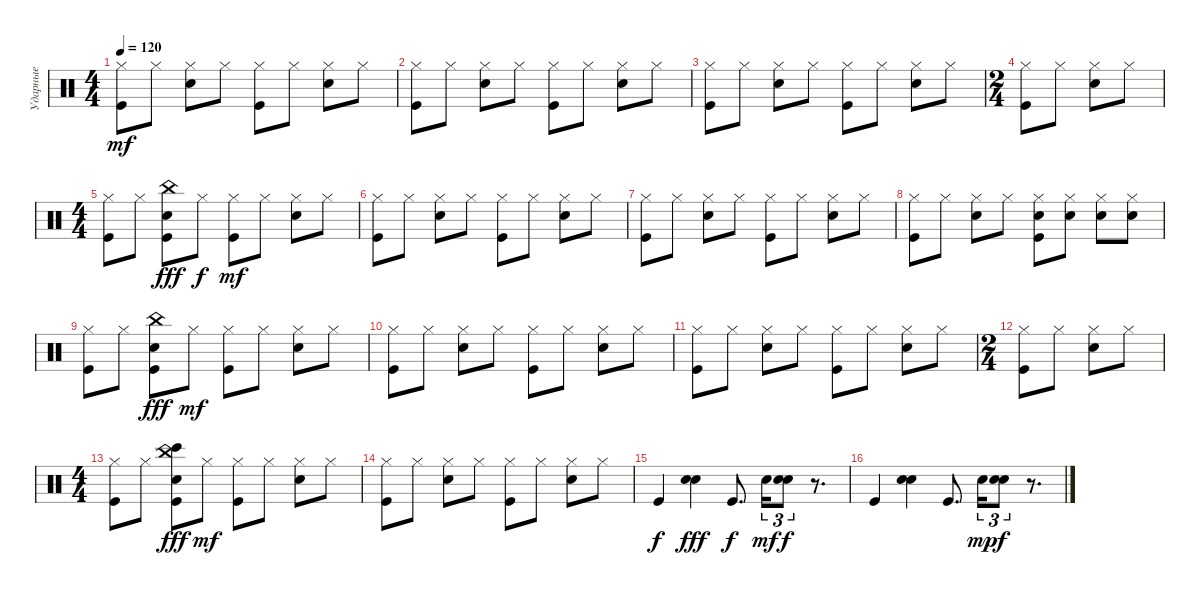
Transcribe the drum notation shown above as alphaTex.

\track ("Ударные" "Ударные") {instrument percussion}
\staff {score}
\articulation defaults
\ts (4 4)
\tempo 120
\clef neutral
\ks c
("Kick (hit)" "Hi-Hat (closed)").8{dy mf} "Hi-Hat (closed)".8 ("Snare (hit) 2" "Hi-Hat (closed)").8 "Hi-Hat (closed)".8 ("Kick (hit)" "Hi-Hat (closed)").8 "Hi-Hat (closed)".8 ("Snare (hit) 2" "Hi-Hat (closed)").8 "Hi-Hat (closed)".8 |
("Kick (hit)" "Hi-Hat (closed)").8 "Hi-Hat (closed)".8 ("Snare (hit) 2" "Hi-Hat (closed)").8 "Hi-Hat (closed)".8 ("Kick (hit)" "Hi-Hat (closed)").8 "Hi-Hat (closed)".8 ("Snare (hit) 2" "Hi-Hat (closed)").8 "Hi-Hat (closed)".8 |
("Kick (hit)" "Hi-Hat (closed)").8 "Hi-Hat (closed)".8 ("Snare (hit) 2" "Hi-Hat (closed)").8 "Hi-Hat (closed)".8 ("Kick (hit)" "Hi-Hat (closed)").8 "Hi-Hat (closed)".8 ("Snare (hit) 2" "Hi-Hat (closed)").8 "Hi-Hat (closed)".8 |
\ts (2 4)
("Kick (hit)" "Hi-Hat (closed)").8 "Hi-Hat (closed)".8 ("Snare (hit) 2" "Hi-Hat (closed)").8 "Hi-Hat (closed)".8 |
\ts (4 4)
("Kick (hit)" "Hi-Hat (closed)").8 "Hi-Hat (closed)".8 ("Kick (hit)" "Hand Clap (hit)" "China (hit)").8{dy fff} "Hi-Hat (closed)".8{dy f} ("Kick (hit)" "Hi-Hat (closed)").8{dy mf} "Hi-Hat (closed)".8 ("Snare (hit) 2" "Hi-Hat (closed)").8 "Hi-Hat (closed)".8 |
("Kick (hit)" "Hi-Hat (closed)").8 "Hi-Hat (closed)".8 ("Snare (hit) 2" "Hi-Hat (closed)").8 "Hi-Hat (closed)".8 ("Kick (hit)" "Hi-Hat (closed)").8 "Hi-Hat (closed)".8 ("Snare (hit) 2" "Hi-Hat (closed)").8 "Hi-Hat (closed)".8 |
("Kick (hit)" "Hi-Hat (closed)").8 "Hi-Hat (closed)".8 ("Snare (hit) 2" "Hi-Hat (closed)").8 "Hi-Hat (closed)".8 ("Kick (hit)" "Hi-Hat (closed)").8 "Hi-Hat (closed)".8 ("Snare (hit) 2" "Hi-Hat (closed)").8 "Hi-Hat (closed)".8 |
("Kick (hit)" "Hi-Hat (closed)").8 "Hi-Hat (closed)".8 ("Snare (hit) 2" "Hi-Hat (closed)").8 "Hi-Hat (closed)".8 ("Kick (hit)" "Hi-Hat (closed)" "Snare (hit) 2").8 ("Hi-Hat (closed)" "Snare (hit) 2").8 ("Hi-Hat (closed)" "Snare (hit) 2").8 ("Hi-Hat (closed)" "Snare (hit) 2").8 |
("Kick (hit)" "Hi-Hat (closed)").8 "Hi-Hat (closed)".8 ("Hand Clap (hit)" "Kick (hit)" "China (hit)").8{dy fff} "Hi-Hat (closed)".8{dy mf} ("Kick (hit)" "Hi-Hat (closed)").8 "Hi-Hat (closed)".8 ("Snare (hit) 2" "Hi-Hat (closed)").8 "Hi-Hat (closed)".8 |
("Kick (hit)" "Hi-Hat (closed)").8 "Hi-Hat (closed)".8 ("Snare (hit) 2" "Hi-Hat (closed)").8 "Hi-Hat (closed)".8 ("Kick (hit)" "Hi-Hat (closed)").8 "Hi-Hat (closed)".8 ("Snare (hit) 2" "Hi-Hat (closed)").8 "Hi-Hat (closed)".8 |
("Kick (hit)" "Hi-Hat (closed)").8 "Hi-Hat (closed)".8 ("Snare (hit) 2" "Hi-Hat (closed)").8 "Hi-Hat (closed)".8 ("Kick (hit)" "Hi-Hat (closed)").8 "Hi-Hat (closed)".8 ("Snare (hit) 2" "Hi-Hat (closed)").8 "Hi-Hat (closed)".8 |
\ts (2 4)
("Kick (hit)" "Hi-Hat (closed)").8 "Hi-Hat (closed)".8 ("Snare (hit) 2" "Hi-Hat (closed)").8 "Hi-Hat (closed)".8 |
\ts (4 4)
("Kick (hit)" "Hi-Hat (closed)").8 "Hi-Hat (closed)".8 ("Kick (hit)" "China (hit)" "Hand Clap (hit)" "Bongo High (hit)").8{dy fff} "Hi-Hat (closed)".8{dy mf} ("Kick (hit)" "Hi-Hat (closed)").8 "Hi-Hat (closed)".8 ("Snare (hit) 2" "Hi-Hat (closed)").8 "Hi-Hat (closed)".8 |
("Kick (hit)" "Hi-Hat (closed)").8 "Hi-Hat (closed)".8 ("Snare (hit) 2" "Hi-Hat (closed)").8 "Hi-Hat (closed)".8 ("Kick (hit)" "Hi-Hat (closed)").8 "Hi-Hat (closed)".8 ("Snare (hit) 2" "Hi-Hat (closed)").8 "Hi-Hat (closed)".8 |
"Kick (hit)".4{dy f} ("Snare (hit) 2" "Hand Clap (hit)").4{dy fff} "Kick (hit)".8{d dy f} "Snare (hit) 2".16{tu (3 2) dy mf} ("Snare (hit) 2" "Hand Clap (hit)").8{tu (3 2) dy f} r.8{d} |
"Kick (hit)".4 ("Snare (hit) 2" "Hand Clap (hit)").4 "Kick (hit)".8{d} "Snare (hit) 2".16{tu (3 2) dy mp} ("Snare (hit) 2" "Hand Clap (hit)").8{tu (3 2) dy f} r.8{d}
